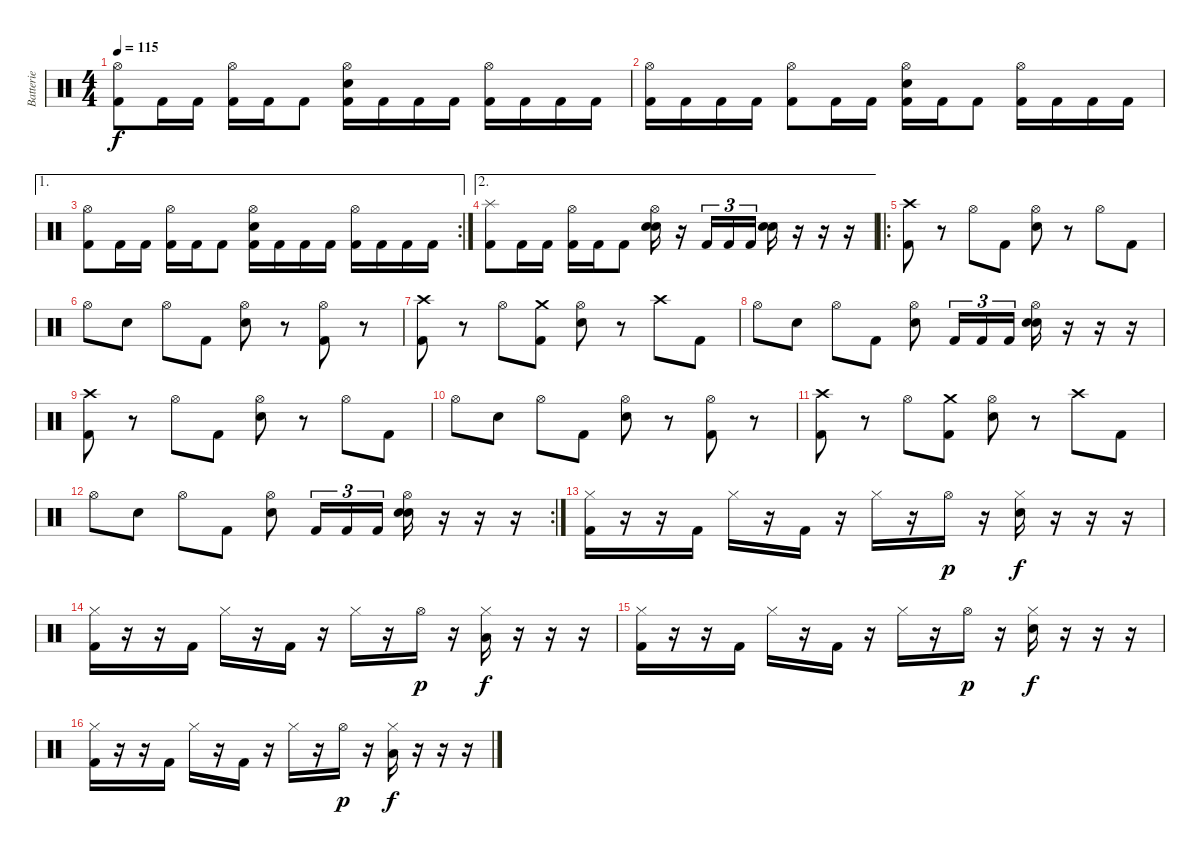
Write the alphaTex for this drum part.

\track ("Batterie" "Batterie") {instrument percussion}
\staff {score}
\articulation defaults
\ts (4 4)
\tempo 115
\clef neutral
\ks c
("Hi-Hat (open)" "Kick (hit) 2").8{dy f} "Kick (hit) 2".16 "Kick (hit) 2".16 ("Hi-Hat (open)" "Kick (hit) 2").16 "Kick (hit) 2".16 "Kick (hit) 2".8 ("Hi-Hat (open)" "Electric Snare (hit)" "Kick (hit) 2").16 "Kick (hit) 2".16 "Kick (hit) 2".16 "Kick (hit) 2".16 ("Hi-Hat (open)" "Kick (hit) 2").16 "Kick (hit) 2".16 "Kick (hit) 2".16 "Kick (hit) 2".16 |
("Hi-Hat (open)" "Kick (hit) 2").16 "Kick (hit) 2".16 "Kick (hit) 2".16 "Kick (hit) 2".16 ("Hi-Hat (open)" "Kick (hit) 2").8 "Kick (hit) 2".16 "Kick (hit) 2".16 ("Hi-Hat (open)" "Electric Snare (hit)" "Kick (hit) 2").16 "Kick (hit) 2".16 "Kick (hit) 2".8 ("Hi-Hat (open)" "Kick (hit) 2").16 "Kick (hit) 2".16 "Kick (hit) 2".16 "Kick (hit) 2".16 |
\ae 1
\rc 2
("Hi-Hat (open)" "Kick (hit) 2").8 "Kick (hit) 2".16 "Kick (hit) 2".16 ("Hi-Hat (open)" "Kick (hit) 2").16 "Kick (hit) 2".16 "Kick (hit) 2".8 ("Hi-Hat (open)" "Electric Snare (hit)" "Kick (hit) 2").16 "Kick (hit) 2".16 "Kick (hit) 2".16 "Kick (hit) 2".16 ("Hi-Hat (open)" "Kick (hit) 2").16 "Kick (hit) 2".16 "Kick (hit) 2".16 "Kick (hit) 2".16 |
\ae 2
("Splash (hit)" "Kick (hit) 2").8 "Kick (hit) 2".16 "Kick (hit) 2".16 ("Hi-Hat (open)" "Kick (hit) 2").16 "Kick (hit) 2".16 "Kick (hit) 2".8 ("Hi-Hat (open)" "Electric Snare (hit)" "Electric Snare (hit)").16 r.16 "Kick (hit) 2".16{tu (3 2)} "Kick (hit) 2".16{tu (3 2)} "Kick (hit) 2".16{tu (3 2)} ("Electric Snare (hit)" "Electric Snare (hit)").16 r.16 r.16 r.16 |
\ro
("Crash high (hit)" "Kick (hit) 2").8 r.8 "Hi-Hat (open)".8 "Kick (hit) 2".8 ("Hi-Hat (open)" "Electric Snare (hit)").8 r.8 "Hi-Hat (open)".8 "Kick (hit) 2".8 |
"Hi-Hat (open)".8 "Electric Snare (hit)".8 "Hi-Hat (open)".8 "Kick (hit) 2".8 ("Hi-Hat (open)" "Electric Snare (hit)").8 r.8 ("Hi-Hat (open)" "Kick (hit) 2").8 r.8 |
("Crash high (hit)" "Kick (hit) 2").8 r.8 "Hi-Hat (open)".8 ("Crash medium (hit)" "Kick (hit) 2").8 ("Hi-Hat (open)" "Electric Snare (hit)").8 r.8 "Crash high (hit)".8 "Kick (hit) 2".8 |
"Hi-Hat (open)".8 "Electric Snare (hit)".8 "Hi-Hat (open)".8 "Kick (hit) 2".8 ("Hi-Hat (open)" "Electric Snare (hit)").8 "Kick (hit) 2".16{tu (3 2)} "Kick (hit) 2".16{tu (3 2)} "Kick (hit) 2".16{tu (3 2)} ("Hi-Hat (open)" "Electric Snare (hit)" "Electric Snare (hit)").16 r.16 r.16 r.16 |
("Crash high (hit)" "Kick (hit) 2").8 r.8 "Hi-Hat (open)".8 "Kick (hit) 2".8 ("Hi-Hat (open)" "Electric Snare (hit)").8 r.8 "Hi-Hat (open)".8 "Kick (hit) 2".8 |
"Hi-Hat (open)".8 "Electric Snare (hit)".8 "Hi-Hat (open)".8 "Kick (hit) 2".8 ("Hi-Hat (open)" "Electric Snare (hit)").8 r.8 ("Hi-Hat (open)" "Kick (hit) 2").8 r.8 |
("Crash high (hit)" "Kick (hit) 2").8 r.8 "Hi-Hat (open)".8 ("Crash medium (hit)" "Kick (hit) 2").8 ("Hi-Hat (open)" "Electric Snare (hit)").8 r.8 "Crash high (hit)".8 "Kick (hit) 2".8 |
\rc 2 "Hi-Hat (open)".8 "Electric Snare (hit)".8 "Hi-Hat (open)".8 "Kick (hit) 2".8
("Hi-Hat (open)" "Electric Snare (hit)").8 "Kick (hit) 2".16{tu (3 2)} "Kick (hit) 2".16{tu (3 2)} "Kick (hit) 2".16{tu (3 2)} ("Hi-Hat (open)" "Electric Snare (hit)" "Electric Snare (hit)").16 r.16 r.16 r.16 |
("Hi-Hat (closed)" "Kick (hit) 2").16 r.16 r.16 "Kick (hit) 2".16 "Hi-Hat (closed)".16 r.16 "Kick (hit) 2".16 r.16 "Hi-Hat (closed)".16 r.16 "Hi-Hat (open)".16{dy p} r.16 ("Hi-Hat (closed)" "Electric Snare (hit)").16{dy f} r.16 r.16 r.16 |
("Hi-Hat (closed)" "Kick (hit) 2").16 r.16 r.16 "Kick (hit) 2".16 "Hi-Hat (closed)".16 r.16 "Kick (hit) 2".16 r.16 "Hi-Hat (closed)".16 r.16 "Hi-Hat (open)".16{dy p} r.16 ("Hi-Hat (closed)" "Low Floor Tom (hit)").16{dy f} r.16 r.16 r.16 |
("Hi-Hat (closed)" "Kick (hit) 2").16 r.16 r.16 "Kick (hit) 2".16 "Hi-Hat (closed)".16 r.16 "Kick (hit) 2".16 r.16 "Hi-Hat (closed)".16 r.16 "Hi-Hat (open)".16{dy p} r.16 ("Hi-Hat (closed)" "Electric Snare (hit)").16{dy f} r.16 r.16 r.16 |
("Hi-Hat (closed)" "Kick (hit) 2").16 r.16 r.16 "Kick (hit) 2".16 "Hi-Hat (closed)".16 r.16 "Kick (hit) 2".16 r.16 "Hi-Hat (closed)".16 r.16 "Hi-Hat (open)".16{dy p} r.16 ("Hi-Hat (closed)" "Low Floor Tom (hit)").16{dy f} r.16 r.16 r.16
